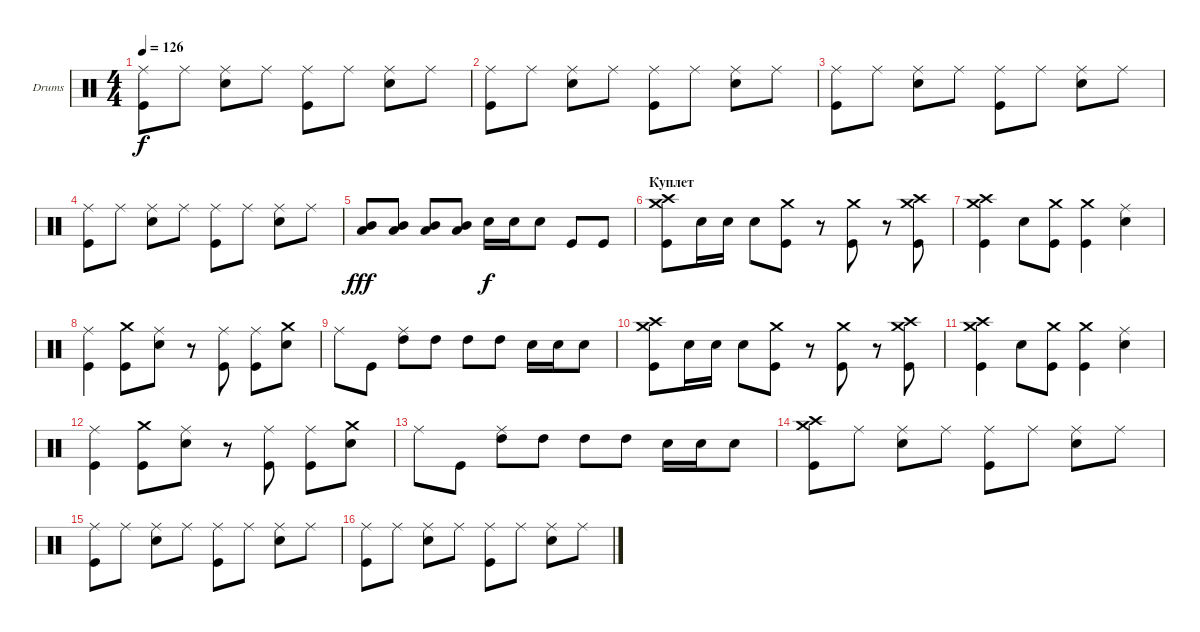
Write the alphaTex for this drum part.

\bracketExtendMode groupsimilarinstruments
\firstSystemTrackNameOrientation horizontal
\otherSystemsTrackNameOrientation horizontal
\track ("Александр Манякин" "Drums") {instrument percussion}
\staff {score}
\articulation defaults
\ts (4 4)
\tempo 126
\clef neutral
\ks c
("Kick (hit)" "Ride (middle)").8{dy f} "Ride (middle)".8 ("Snare (hit) 2" "Ride (middle)").8 "Ride (middle)".8 ("Kick (hit)" "Ride (middle)").8 "Ride (middle)".8 ("Snare (hit) 2" "Ride (middle)").8 "Ride (middle)".8 |
("Kick (hit)" "Ride (middle)").8 "Ride (middle)".8 ("Snare (hit) 2" "Ride (middle)").8 "Ride (middle)".8 ("Kick (hit)" "Ride (middle)").8 "Ride (middle)".8 ("Snare (hit) 2" "Ride (middle)").8 "Ride (middle)".8 |
("Kick (hit)" "Ride (middle)").8 "Ride (middle)".8 ("Snare (hit) 2" "Ride (middle)").8 "Ride (middle)".8 ("Kick (hit)" "Ride (middle)").8 "Ride (middle)".8 ("Snare (hit) 2" "Ride (middle)").8 "Ride (middle)".8 |
("Kick (hit)" "Ride (middle)").8 "Ride (middle)".8 ("Snare (hit) 2" "Ride (middle)").8 "Ride (middle)".8 ("Kick (hit)" "Ride (middle)").8 "Ride (middle)".8 ("Snare (hit) 2" "Ride (middle)").8 "Ride (middle)".8 |
("Mid Tom (hit)" "Low Tom (hit)").8{dy fff} ("Mid Tom (hit)" "Low Tom (hit)").8 ("Mid Tom (hit)" "Low Tom (hit)").8 ("Mid Tom (hit)" "Low Tom (hit)").8 "Snare (hit) 2".16{dy f} "Snare (hit) 2".16 "Snare (hit) 2".8 "Kick (hit)".8 "Kick (hit)".8 |
\section ("" "Куплет")
("Kick (hit)" "Crash medium (hit)" "Crash high (hit)").8 "Snare (hit) 2".16 "Snare (hit) 2".16 "Snare (hit) 2".8 ("Kick (hit)" "Crash medium (hit)").8 r.8 ("Kick (hit)" "Crash medium (hit)").8 r.8 ("Kick (hit)" "Crash high (hit)" "Crash medium (hit)").8 |
("Kick (hit)" "Crash medium (hit)" "Crash high (hit)").4 "Snare (hit) 2".8 ("Kick (hit)" "Crash medium (hit)").8 ("Kick (hit)" "Crash medium (hit)").4 ("Snare (hit) 2" "Ride (middle)").4 |
("Kick (hit)" "Ride (middle)").4 ("Kick (hit)" "Crash medium (hit)").8 ("Snare (hit) 2" "Ride (middle)").8 r.8 ("Kick (hit)" "Ride (middle)").8 ("Kick (hit)" "Ride (middle)").8 ("Snare (hit) 2" "Crash medium (hit)").8 |
"Ride (middle)".8 "Kick (hit)".8 ("High Tom (hit)" "Ride (middle)").8 "High Tom (hit)".8 "High Tom (hit)".8 "High Tom (hit)".8 "Snare (hit) 2".16 "Snare (hit) 2".16 "Snare (hit) 2".8 |
("Kick (hit)" "Crash medium (hit)" "Crash high (hit)").8 "Snare (hit) 2".16 "Snare (hit) 2".16 "Snare (hit) 2".8 ("Kick (hit)" "Crash medium (hit)").8 r.8 ("Kick (hit)" "Crash medium (hit)").8 r.8 ("Kick (hit)" "Crash high (hit)" "Crash medium (hit)").8 |
("Kick (hit)" "Crash medium (hit)" "Crash high (hit)").4 "Snare (hit) 2".8 ("Kick (hit)" "Crash medium (hit)").8 ("Kick (hit)" "Crash medium (hit)").4 ("Snare (hit) 2" "Ride (middle)").4 |
("Kick (hit)" "Ride (middle)").4 ("Kick (hit)" "Crash medium (hit)").8 ("Snare (hit) 2" "Ride (middle)").8 r.8 ("Kick (hit)" "Ride (middle)").8 ("Kick (hit)" "Ride (middle)").8 ("Snare (hit) 2" "Crash medium (hit)").8 |
"Ride (middle)".8 "Kick (hit)".8 ("High Tom (hit)" "Ride (middle)").8 "High Tom (hit)".8 "High Tom (hit)".8 "High Tom (hit)".8 "Snare (hit) 2".16 "Snare (hit) 2".16 "Snare (hit) 2".8 |
("Kick (hit)" "Crash medium (hit)" "Crash high (hit)").8 "Ride (middle)".8 ("Snare (hit) 2" "Ride (middle)").8 "Ride (middle)".8 ("Kick (hit)" "Ride (middle)").8 "Ride (middle)".8 ("Snare (hit) 2" "Ride (middle)").8 "Ride (middle)".8 |
("Kick (hit)" "Ride (middle)").8 "Ride (middle)".8 ("Snare (hit) 2" "Ride (middle)").8 "Ride (middle)".8 ("Kick (hit)" "Ride (middle)").8 "Ride (middle)".8 ("Snare (hit) 2" "Ride (middle)").8 "Ride (middle)".8 |
("Kick (hit)" "Ride (middle)").8 "Ride (middle)".8 ("Snare (hit) 2" "Ride (middle)").8 "Ride (middle)".8 ("Kick (hit)" "Ride (middle)").8 "Ride (middle)".8 ("Snare (hit) 2" "Ride (middle)").8 "Ride (middle)".8
